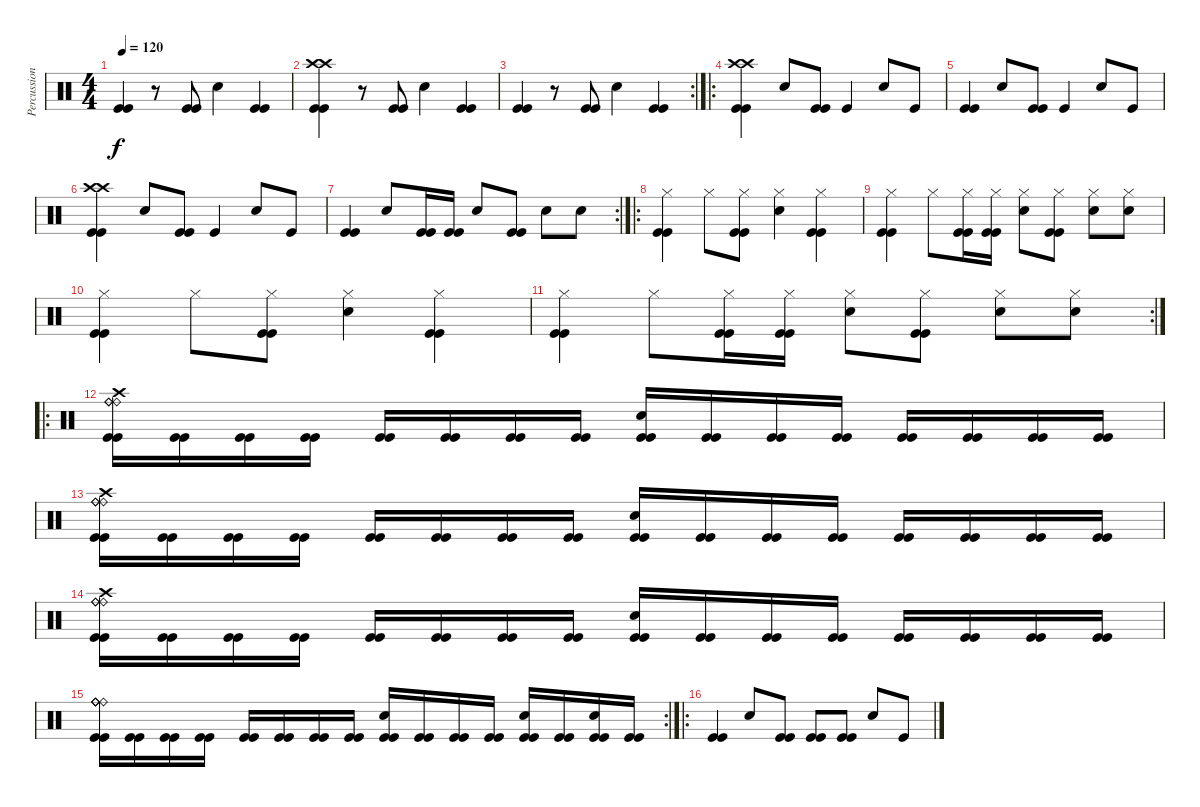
\track ("Percussion" "Percussion") {instrument percussion}
\staff {score}
\articulation defaults
\ts (4 4)
\tempo 120
\clef neutral
\ks c
("Kick (hit)" "Kick (hit)").4{dy f} r.8 ("Kick (hit)" "Kick (hit)").8 "Electric Snare (hit)".4 ("Kick (hit)" "Kick (hit)").4 |
("Kick (hit)" "Kick (hit)" "Crash high (hit)" "Crash high (hit)").4 r.8 ("Kick (hit)" "Kick (hit)").8 "Electric Snare (hit)".4 ("Kick (hit)" "Kick (hit)").4 |
\rc 2
("Kick (hit)" "Kick (hit)").4 r.8 ("Kick (hit)" "Kick (hit)").8 "Electric Snare (hit)".4 ("Kick (hit)" "Kick (hit)").4 |
\ro
("Kick (hit)" "Kick (hit)" "Crash high (hit)" "Crash high (hit)").4 "Electric Snare (hit)".8 ("Kick (hit)" "Kick (hit)").8 "Kick (hit)".4 "Electric Snare (hit)".8 "Kick (hit)".8 |
("Kick (hit)" "Kick (hit)").4 "Electric Snare (hit)".8 ("Kick (hit)" "Kick (hit)").8 "Kick (hit)".4 "Electric Snare (hit)".8 "Kick (hit)".8 |
("Kick (hit)" "Kick (hit)" "Crash high (hit)" "Crash high (hit)").4 "Electric Snare (hit)".8 ("Kick (hit)" "Kick (hit)").8 "Kick (hit)".4 "Electric Snare (hit)".8 "Kick (hit)".8 |
\rc 2
("Kick (hit)" "Kick (hit)").4 "Electric Snare (hit)".8 ("Kick (hit)" "Kick (hit)").16 ("Kick (hit)" "Kick (hit)").16 "Electric Snare (hit)".8 ("Kick (hit)" "Kick (hit)").8 "Electric Snare (hit)".8 "Electric Snare (hit)".8 |
\ro
("Kick (hit)" "Kick (hit)" "Hi-Hat (closed)").4 "Hi-Hat (closed)".8 ("Kick (hit)" "Kick (hit)" "Hi-Hat (closed)").8 ("Electric Snare (hit)" "Hi-Hat (closed)").4 ("Kick (hit)" "Kick (hit)" "Hi-Hat (closed)").4 |
("Kick (hit)" "Kick (hit)" "Hi-Hat (closed)").4 "Hi-Hat (closed)".8 ("Kick (hit)" "Kick (hit)" "Hi-Hat (closed)").16 ("Kick (hit)" "Kick (hit)" "Hi-Hat (closed)").16 ("Electric Snare (hit)" "Hi-Hat (closed)").8 ("Kick (hit)" "Kick (hit)" "Hi-Hat (closed)").8 ("Electric Snare (hit)" "Hi-Hat (closed)").8 ("Electric Snare (hit)" "Hi-Hat (closed)").8 |
("Kick (hit)" "Kick (hit)" "Hi-Hat (closed)").4 "Hi-Hat (closed)".8 ("Kick (hit)" "Kick (hit)" "Hi-Hat (closed)").8 ("Electric Snare (hit)" "Hi-Hat (closed)").4 ("Kick (hit)" "Kick (hit)" "Hi-Hat (closed)").4 |
\rc 2
("Kick (hit)" "Kick (hit)" "Hi-Hat (closed)").4 "Hi-Hat (closed)".8 ("Kick (hit)" "Kick (hit)" "Hi-Hat (closed)").16 ("Kick (hit)" "Kick (hit)" "Hi-Hat (closed)").16 ("Electric Snare (hit)" "Hi-Hat (closed)").8 ("Kick (hit)" "Kick (hit)" "Hi-Hat (closed)").8 ("Electric Snare (hit)" "Hi-Hat (closed)").8 ("Electric Snare (hit)" "Hi-Hat (closed)").8 |
\ro
("Kick (hit)" "Kick (hit)" "Ride (bell)" "Ride (bell)" "Crash high (hit)" "Ride (bell)").16 ("Kick (hit)" "Kick (hit)").16 ("Kick (hit)" "Kick (hit)").16 ("Kick (hit)" "Kick (hit)").16 ("Kick (hit)" "Kick (hit)").16 ("Kick (hit)" "Kick (hit)").16 ("Kick (hit)" "Kick (hit)").16 ("Kick (hit)" "Kick (hit)").16 ("Kick (hit)" "Kick (hit)" "Electric Snare (hit)").16 ("Kick (hit)" "Kick (hit)").16 ("Kick (hit)" "Kick (hit)").16 ("Kick (hit)" "Kick (hit)").16 ("Kick (hit)" "Kick (hit)").16 ("Kick (hit)" "Kick (hit)").16 ("Kick (hit)" "Kick (hit)").16 ("Kick (hit)" "Kick (hit)").16 |
("Kick (hit)" "Kick (hit)" "Ride (bell)" "Ride (bell)" "Crash high (hit)" "Ride (bell)").16 ("Kick (hit)" "Kick (hit)").16 ("Kick (hit)" "Kick (hit)").16 ("Kick (hit)" "Kick (hit)").16 ("Kick (hit)" "Kick (hit)").16 ("Kick (hit)" "Kick (hit)").16 ("Kick (hit)" "Kick (hit)").16 ("Kick (hit)" "Kick (hit)").16 ("Kick (hit)" "Kick (hit)" "Electric Snare (hit)").16 ("Kick (hit)" "Kick (hit)").16 ("Kick (hit)" "Kick (hit)").16 ("Kick (hit)" "Kick (hit)").16 ("Kick (hit)" "Kick (hit)").16 ("Kick (hit)" "Kick (hit)").16 ("Kick (hit)" "Kick (hit)").16 ("Kick (hit)" "Kick (hit)").16 |
("Kick (hit)" "Kick (hit)" "Ride (bell)" "Ride (bell)" "Crash high (hit)" "Ride (bell)").16 ("Kick (hit)" "Kick (hit)").16 ("Kick (hit)" "Kick (hit)").16 ("Kick (hit)" "Kick (hit)").16 ("Kick (hit)" "Kick (hit)").16 ("Kick (hit)" "Kick (hit)").16 ("Kick (hit)" "Kick (hit)").16 ("Kick (hit)" "Kick (hit)").16 ("Kick (hit)" "Kick (hit)" "Electric Snare (hit)").16 ("Kick (hit)" "Kick (hit)").16 ("Kick (hit)" "Kick (hit)").16 ("Kick (hit)" "Kick (hit)").16 ("Kick (hit)" "Kick (hit)").16 ("Kick (hit)" "Kick (hit)").16 ("Kick (hit)" "Kick (hit)").16 ("Kick (hit)" "Kick (hit)").16 |
\rc 2
("Kick (hit)" "Kick (hit)" "Ride (bell)" "Ride (bell)" "Ride (bell)" "Ride (bell)").16 ("Kick (hit)" "Kick (hit)").16 ("Kick (hit)" "Kick (hit)").16 ("Kick (hit)" "Kick (hit)").16 ("Kick (hit)" "Kick (hit)").16 ("Kick (hit)" "Kick (hit)").16 ("Kick (hit)" "Kick (hit)").16 ("Kick (hit)" "Kick (hit)").16 ("Kick (hit)" "Kick (hit)" "Electric Snare (hit)").16 ("Kick (hit)" "Kick (hit)").16 ("Kick (hit)" "Kick (hit)").16 ("Kick (hit)" "Kick (hit)").16 ("Kick (hit)" "Kick (hit)" "Electric Snare (hit)").16 ("Kick (hit)" "Kick (hit)").16 ("Kick (hit)" "Kick (hit)" "Electric Snare (hit)").16 ("Kick (hit)" "Kick (hit)").16 |
\ro
("Kick (hit)" "Kick (hit)").4 "Electric Snare (hit)".8 ("Kick (hit)" "Kick (hit)").8 ("Kick (hit)" "Kick (hit)").8 ("Kick (hit)" "Kick (hit)").8 "Electric Snare (hit)".8 "Kick (hit)".8
